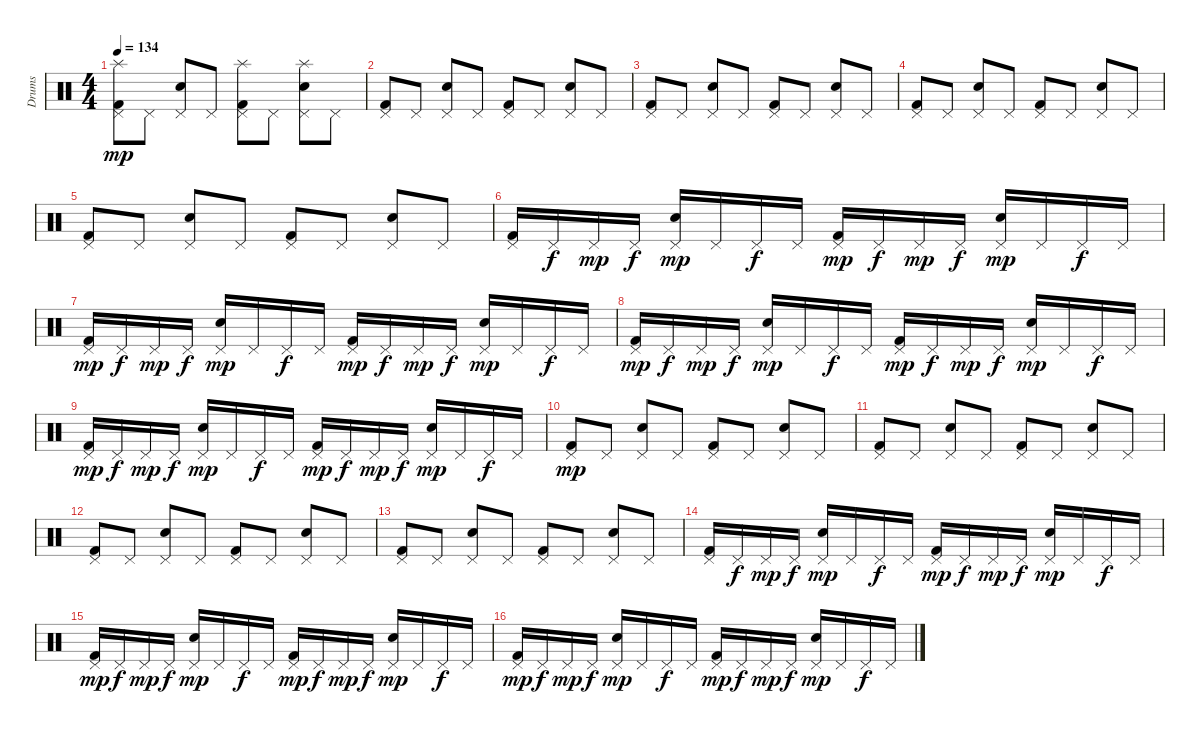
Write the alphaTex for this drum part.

\track ("Drums" "Drums") {instrument percussion}
\staff {score}
\articulation defaults
\ts (4 4)
\tempo 134
\clef neutral
\ks c
("Splash (hit)" "Pedal Hi-Hat (hit)" "Kick (hit) 2").8{dy mp} "Pedal Hi-Hat (hit)".8 ("Pedal Hi-Hat (hit)" "Electric Snare (hit)").8 "Pedal Hi-Hat (hit)".8 ("Splash (hit)" "Pedal Hi-Hat (hit)" "Kick (hit) 2").8 "Pedal Hi-Hat (hit)".8 ("Splash (hit)" "Pedal Hi-Hat (hit)" "Electric Snare (hit)").8 "Pedal Hi-Hat (hit)".8 |
("Pedal Hi-Hat (hit)" "Kick (hit) 2").8 "Pedal Hi-Hat (hit)".8 ("Pedal Hi-Hat (hit)" "Electric Snare (hit)").8 "Pedal Hi-Hat (hit)".8 ("Pedal Hi-Hat (hit)" "Kick (hit) 2").8 "Pedal Hi-Hat (hit)".8 ("Pedal Hi-Hat (hit)" "Electric Snare (hit)").8 "Pedal Hi-Hat (hit)".8 |
("Pedal Hi-Hat (hit)" "Kick (hit) 2").8 "Pedal Hi-Hat (hit)".8 ("Pedal Hi-Hat (hit)" "Electric Snare (hit)").8 "Pedal Hi-Hat (hit)".8 ("Pedal Hi-Hat (hit)" "Kick (hit) 2").8 "Pedal Hi-Hat (hit)".8 ("Pedal Hi-Hat (hit)" "Electric Snare (hit)").8 "Pedal Hi-Hat (hit)".8 |
("Pedal Hi-Hat (hit)" "Kick (hit) 2").8 "Pedal Hi-Hat (hit)".8 ("Pedal Hi-Hat (hit)" "Electric Snare (hit)").8 "Pedal Hi-Hat (hit)".8 ("Pedal Hi-Hat (hit)" "Kick (hit) 2").8 "Pedal Hi-Hat (hit)".8 ("Pedal Hi-Hat (hit)" "Electric Snare (hit)").8 "Pedal Hi-Hat (hit)".8 |
("Pedal Hi-Hat (hit)" "Kick (hit) 2").8 "Pedal Hi-Hat (hit)".8 ("Pedal Hi-Hat (hit)" "Electric Snare (hit)").8 "Pedal Hi-Hat (hit)".8 ("Pedal Hi-Hat (hit)" "Kick (hit) 2").8 "Pedal Hi-Hat (hit)".8 ("Pedal Hi-Hat (hit)" "Electric Snare (hit)").8 "Pedal Hi-Hat (hit)".8 |
("Pedal Hi-Hat (hit)" "Kick (hit) 2").16 "Pedal Hi-Hat (hit)".16{dy f} "Pedal Hi-Hat (hit)".16{dy mp} "Pedal Hi-Hat (hit)".16{dy f} ("Pedal Hi-Hat (hit)" "Electric Snare (hit)").16{dy mp} "Pedal Hi-Hat (hit)".16 "Pedal Hi-Hat (hit)".16{dy f} "Pedal Hi-Hat (hit)".16 ("Pedal Hi-Hat (hit)" "Kick (hit) 2").16{dy mp} "Pedal Hi-Hat (hit)".16{dy f} "Pedal Hi-Hat (hit)".16{dy mp} "Pedal Hi-Hat (hit)".16{dy f} ("Pedal Hi-Hat (hit)" "Electric Snare (hit)").16{dy mp} "Pedal Hi-Hat (hit)".16 "Pedal Hi-Hat (hit)".16{dy f} "Pedal Hi-Hat (hit)".16 |
("Pedal Hi-Hat (hit)" "Kick (hit) 2").16{dy mp} "Pedal Hi-Hat (hit)".16{dy f} "Pedal Hi-Hat (hit)".16{dy mp} "Pedal Hi-Hat (hit)".16{dy f} ("Pedal Hi-Hat (hit)" "Electric Snare (hit)").16{dy mp} "Pedal Hi-Hat (hit)".16 "Pedal Hi-Hat (hit)".16{dy f} "Pedal Hi-Hat (hit)".16 ("Pedal Hi-Hat (hit)" "Kick (hit) 2").16{dy mp} "Pedal Hi-Hat (hit)".16{dy f} "Pedal Hi-Hat (hit)".16{dy mp} "Pedal Hi-Hat (hit)".16{dy f} ("Pedal Hi-Hat (hit)" "Electric Snare (hit)").16{dy mp} "Pedal Hi-Hat (hit)".16 "Pedal Hi-Hat (hit)".16{dy f} "Pedal Hi-Hat (hit)".16 |
("Pedal Hi-Hat (hit)" "Kick (hit) 2").16{dy mp} "Pedal Hi-Hat (hit)".16{dy f} "Pedal Hi-Hat (hit)".16{dy mp} "Pedal Hi-Hat (hit)".16{dy f} ("Pedal Hi-Hat (hit)" "Electric Snare (hit)").16{dy mp} "Pedal Hi-Hat (hit)".16 "Pedal Hi-Hat (hit)".16{dy f} "Pedal Hi-Hat (hit)".16 ("Pedal Hi-Hat (hit)" "Kick (hit) 2").16{dy mp} "Pedal Hi-Hat (hit)".16{dy f} "Pedal Hi-Hat (hit)".16{dy mp} "Pedal Hi-Hat (hit)".16{dy f} ("Pedal Hi-Hat (hit)" "Electric Snare (hit)").16{dy mp} "Pedal Hi-Hat (hit)".16 "Pedal Hi-Hat (hit)".16{dy f} "Pedal Hi-Hat (hit)".16 |
("Pedal Hi-Hat (hit)" "Kick (hit) 2").16{dy mp} "Pedal Hi-Hat (hit)".16{dy f} "Pedal Hi-Hat (hit)".16{dy mp} "Pedal Hi-Hat (hit)".16{dy f} ("Pedal Hi-Hat (hit)" "Electric Snare (hit)").16{dy mp} "Pedal Hi-Hat (hit)".16 "Pedal Hi-Hat (hit)".16{dy f} "Pedal Hi-Hat (hit)".16 ("Pedal Hi-Hat (hit)" "Kick (hit) 2").16{dy mp} "Pedal Hi-Hat (hit)".16{dy f} "Pedal Hi-Hat (hit)".16{dy mp} "Pedal Hi-Hat (hit)".16{dy f} ("Pedal Hi-Hat (hit)" "Electric Snare (hit)").16{dy mp} "Pedal Hi-Hat (hit)".16 "Pedal Hi-Hat (hit)".16{dy f} "Pedal Hi-Hat (hit)".16 |
("Pedal Hi-Hat (hit)" "Kick (hit) 2").8{dy mp} "Pedal Hi-Hat (hit)".8 ("Pedal Hi-Hat (hit)" "Electric Snare (hit)").8 "Pedal Hi-Hat (hit)".8 ("Pedal Hi-Hat (hit)" "Kick (hit) 2").8 "Pedal Hi-Hat (hit)".8 ("Pedal Hi-Hat (hit)" "Electric Snare (hit)").8 "Pedal Hi-Hat (hit)".8 |
("Pedal Hi-Hat (hit)" "Kick (hit) 2").8 "Pedal Hi-Hat (hit)".8 ("Pedal Hi-Hat (hit)" "Electric Snare (hit)").8 "Pedal Hi-Hat (hit)".8 ("Pedal Hi-Hat (hit)" "Kick (hit) 2").8 "Pedal Hi-Hat (hit)".8 ("Pedal Hi-Hat (hit)" "Electric Snare (hit)").8 "Pedal Hi-Hat (hit)".8 |
("Pedal Hi-Hat (hit)" "Kick (hit) 2").8 "Pedal Hi-Hat (hit)".8 ("Pedal Hi-Hat (hit)" "Electric Snare (hit)").8 "Pedal Hi-Hat (hit)".8 ("Pedal Hi-Hat (hit)" "Kick (hit) 2").8 "Pedal Hi-Hat (hit)".8 ("Pedal Hi-Hat (hit)" "Electric Snare (hit)").8 "Pedal Hi-Hat (hit)".8 |
("Pedal Hi-Hat (hit)" "Kick (hit) 2").8 "Pedal Hi-Hat (hit)".8 ("Pedal Hi-Hat (hit)" "Electric Snare (hit)").8 "Pedal Hi-Hat (hit)".8 ("Pedal Hi-Hat (hit)" "Kick (hit) 2").8 "Pedal Hi-Hat (hit)".8 ("Pedal Hi-Hat (hit)" "Electric Snare (hit)").8 "Pedal Hi-Hat (hit)".8 |
("Pedal Hi-Hat (hit)" "Kick (hit) 2").16 "Pedal Hi-Hat (hit)".16{dy f} "Pedal Hi-Hat (hit)".16{dy mp} "Pedal Hi-Hat (hit)".16{dy f} ("Pedal Hi-Hat (hit)" "Electric Snare (hit)").16{dy mp} "Pedal Hi-Hat (hit)".16 "Pedal Hi-Hat (hit)".16{dy f} "Pedal Hi-Hat (hit)".16 ("Pedal Hi-Hat (hit)" "Kick (hit) 2").16{dy mp} "Pedal Hi-Hat (hit)".16{dy f} "Pedal Hi-Hat (hit)".16{dy mp} "Pedal Hi-Hat (hit)".16{dy f} ("Pedal Hi-Hat (hit)" "Electric Snare (hit)").16{dy mp} "Pedal Hi-Hat (hit)".16 "Pedal Hi-Hat (hit)".16{dy f} "Pedal Hi-Hat (hit)".16 |
("Pedal Hi-Hat (hit)" "Kick (hit) 2").16{dy mp} "Pedal Hi-Hat (hit)".16{dy f} "Pedal Hi-Hat (hit)".16{dy mp} "Pedal Hi-Hat (hit)".16{dy f} ("Pedal Hi-Hat (hit)" "Electric Snare (hit)").16{dy mp} "Pedal Hi-Hat (hit)".16 "Pedal Hi-Hat (hit)".16{dy f} "Pedal Hi-Hat (hit)".16 ("Pedal Hi-Hat (hit)" "Kick (hit) 2").16{dy mp} "Pedal Hi-Hat (hit)".16{dy f} "Pedal Hi-Hat (hit)".16{dy mp} "Pedal Hi-Hat (hit)".16{dy f} ("Pedal Hi-Hat (hit)" "Electric Snare (hit)").16{dy mp} "Pedal Hi-Hat (hit)".16 "Pedal Hi-Hat (hit)".16{dy f} "Pedal Hi-Hat (hit)".16 |
("Pedal Hi-Hat (hit)" "Kick (hit) 2").16{dy mp} "Pedal Hi-Hat (hit)".16{dy f} "Pedal Hi-Hat (hit)".16{dy mp} "Pedal Hi-Hat (hit)".16{dy f} ("Pedal Hi-Hat (hit)" "Electric Snare (hit)").16{dy mp} "Pedal Hi-Hat (hit)".16 "Pedal Hi-Hat (hit)".16{dy f} "Pedal Hi-Hat (hit)".16 ("Pedal Hi-Hat (hit)" "Kick (hit) 2").16{dy mp} "Pedal Hi-Hat (hit)".16{dy f} "Pedal Hi-Hat (hit)".16{dy mp} "Pedal Hi-Hat (hit)".16{dy f} ("Pedal Hi-Hat (hit)" "Electric Snare (hit)").16{dy mp} "Pedal Hi-Hat (hit)".16 "Pedal Hi-Hat (hit)".16{dy f} "Pedal Hi-Hat (hit)".16
